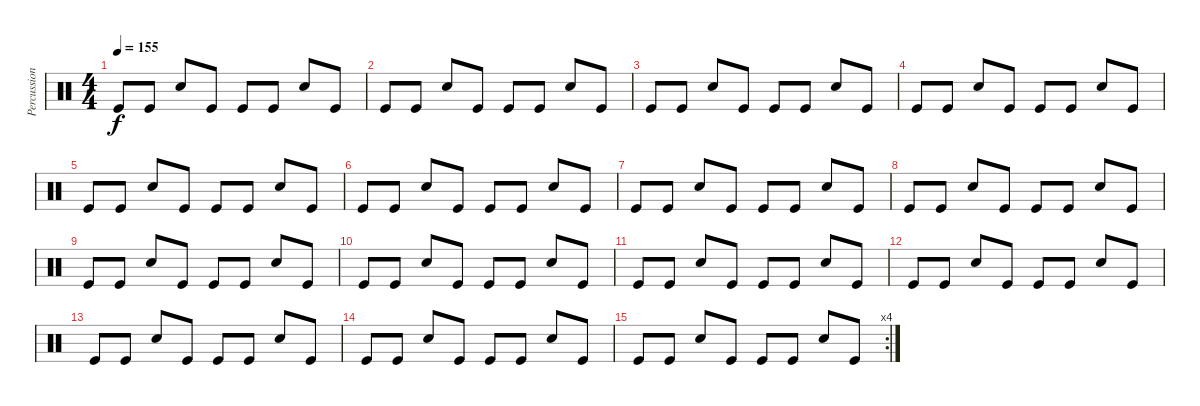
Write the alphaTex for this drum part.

\track ("Percussion" "Percussion") {instrument percussion}
\staff {score}
\articulation defaults
\ts (4 4)
\tempo 155
\clef neutral
\ks c "Kick (hit)".8{dy f} "Kick (hit)".8 "Snare (hit) 2".8 "Kick (hit)".8 "Kick (hit)".8 "Kick (hit)".8 "Snare (hit) 2".8 "Kick (hit)".8
|
"Kick (hit)".8 "Kick (hit)".8 "Snare (hit) 2".8 "Kick (hit)".8 "Kick (hit)".8 "Kick (hit)".8 "Snare (hit) 2".8 "Kick (hit)".8 |
"Kick (hit)".8 "Kick (hit)".8 "Snare (hit) 2".8 "Kick (hit)".8 "Kick (hit)".8 "Kick (hit)".8 "Snare (hit) 2".8 "Kick (hit)".8 |
"Kick (hit)".8 "Kick (hit)".8 "Snare (hit) 2".8 "Kick (hit)".8 "Kick (hit)".8 "Kick (hit)".8 "Snare (hit) 2".8 "Kick (hit)".8 |
"Kick (hit)".8 "Kick (hit)".8 "Snare (hit) 2".8 "Kick (hit)".8 "Kick (hit)".8 "Kick (hit)".8 "Snare (hit) 2".8 "Kick (hit)".8 |
"Kick (hit)".8 "Kick (hit)".8 "Snare (hit) 2".8 "Kick (hit)".8 "Kick (hit)".8 "Kick (hit)".8 "Snare (hit) 2".8 "Kick (hit)".8 |
"Kick (hit)".8 "Kick (hit)".8 "Snare (hit) 2".8 "Kick (hit)".8 "Kick (hit)".8 "Kick (hit)".8 "Snare (hit) 2".8 "Kick (hit)".8 |
"Kick (hit)".8 "Kick (hit)".8 "Snare (hit) 2".8 "Kick (hit)".8 "Kick (hit)".8 "Kick (hit)".8 "Snare (hit) 2".8 "Kick (hit)".8 |
"Kick (hit)".8 "Kick (hit)".8 "Snare (hit) 2".8 "Kick (hit)".8 "Kick (hit)".8 "Kick (hit)".8 "Snare (hit) 2".8 "Kick (hit)".8 |
"Kick (hit)".8 "Kick (hit)".8 "Snare (hit) 2".8 "Kick (hit)".8 "Kick (hit)".8 "Kick (hit)".8 "Snare (hit) 2".8 "Kick (hit)".8 |
"Kick (hit)".8 "Kick (hit)".8 "Snare (hit) 2".8 "Kick (hit)".8 "Kick (hit)".8 "Kick (hit)".8 "Snare (hit) 2".8 "Kick (hit)".8 |
"Kick (hit)".8 "Kick (hit)".8 "Snare (hit) 2".8 "Kick (hit)".8 "Kick (hit)".8 "Kick (hit)".8 "Snare (hit) 2".8 "Kick (hit)".8 |
"Kick (hit)".8 "Kick (hit)".8 "Snare (hit) 2".8 "Kick (hit)".8 "Kick (hit)".8 "Kick (hit)".8 "Snare (hit) 2".8 "Kick (hit)".8 |
"Kick (hit)".8 "Kick (hit)".8 "Snare (hit) 2".8 "Kick (hit)".8 "Kick (hit)".8 "Kick (hit)".8 "Snare (hit) 2".8 "Kick (hit)".8 |
\rc 4 "Kick (hit)".8 "Kick (hit)".8 "Snare (hit) 2".8 "Kick (hit)".8 "Kick (hit)".8 "Kick (hit)".8 "Snare (hit) 2".8 "Kick (hit)".8
